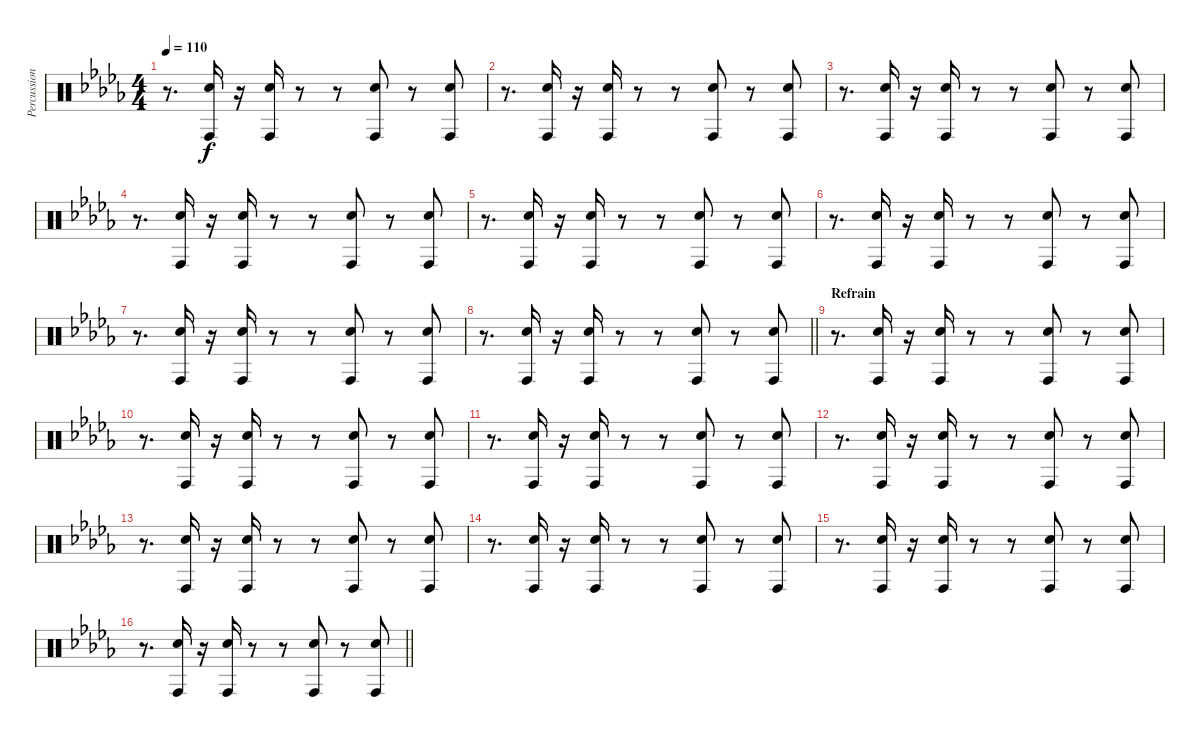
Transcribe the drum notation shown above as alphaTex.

\track ("Percussions" "Percussion") {instrument percussion}
\staff {score}
\articulation defaults
\ts (4 4)
\tempo 110
\clef neutral
\ks bbminor
r.8{d dy f} ("Conga high (hit)" "Hand Clap (hit)").16 r.16 ("Conga high (hit)" "Hand Clap (hit)").16 r.8 r.8 ("Conga high (hit)" "Hand Clap (hit)").8 r.8 ("Conga high (hit)" "Hand Clap (hit)").8 |
r.8{d} ("Conga high (hit)" "Hand Clap (hit)").16 r.16 ("Conga high (hit)" "Hand Clap (hit)").16 r.8 r.8 ("Conga high (hit)" "Hand Clap (hit)").8 r.8 ("Conga high (hit)" "Hand Clap (hit)").8 |
r.8{d} ("Conga high (hit)" "Hand Clap (hit)").16 r.16 ("Conga high (hit)" "Hand Clap (hit)").16 r.8 r.8 ("Conga high (hit)" "Hand Clap (hit)").8 r.8 ("Conga high (hit)" "Hand Clap (hit)").8 |
r.8{d} ("Conga high (hit)" "Hand Clap (hit)").16 r.16 ("Conga high (hit)" "Hand Clap (hit)").16 r.8 r.8 ("Conga high (hit)" "Hand Clap (hit)").8 r.8 ("Conga high (hit)" "Hand Clap (hit)").8 |
r.8{d} ("Conga high (hit)" "Hand Clap (hit)").16 r.16 ("Conga high (hit)" "Hand Clap (hit)").16 r.8 r.8 ("Conga high (hit)" "Hand Clap (hit)").8 r.8 ("Conga high (hit)" "Hand Clap (hit)").8 |
r.8{d} ("Conga high (hit)" "Hand Clap (hit)").16 r.16 ("Conga high (hit)" "Hand Clap (hit)").16 r.8 r.8 ("Conga high (hit)" "Hand Clap (hit)").8 r.8 ("Conga high (hit)" "Hand Clap (hit)").8 |
r.8{d} ("Conga high (hit)" "Hand Clap (hit)").16 r.16 ("Conga high (hit)" "Hand Clap (hit)").16 r.8 r.8 ("Conga high (hit)" "Hand Clap (hit)").8 r.8 ("Conga high (hit)" "Hand Clap (hit)").8 |
\barLineRight lightlight
r.8{d} ("Conga high (hit)" "Hand Clap (hit)").16 r.16 ("Conga high (hit)" "Hand Clap (hit)").16 r.8 r.8 ("Conga high (hit)" "Hand Clap (hit)").8 r.8 ("Conga high (hit)" "Hand Clap (hit)").8 |
\section ("" "Refrain")
r.8{d} ("Conga high (hit)" "Hand Clap (hit)").16 r.16 ("Conga high (hit)" "Hand Clap (hit)").16 r.8 r.8 ("Conga high (hit)" "Hand Clap (hit)").8 r.8 ("Conga high (hit)" "Hand Clap (hit)").8 |
r.8{d} ("Conga high (hit)" "Hand Clap (hit)").16 r.16 ("Conga high (hit)" "Hand Clap (hit)").16 r.8 r.8 ("Conga high (hit)" "Hand Clap (hit)").8 r.8 ("Conga high (hit)" "Hand Clap (hit)").8 |
r.8{d} ("Conga high (hit)" "Hand Clap (hit)").16 r.16 ("Conga high (hit)" "Hand Clap (hit)").16 r.8 r.8 ("Conga high (hit)" "Hand Clap (hit)").8 r.8 ("Conga high (hit)" "Hand Clap (hit)").8 |
r.8{d} ("Conga high (hit)" "Hand Clap (hit)").16 r.16 ("Conga high (hit)" "Hand Clap (hit)").16 r.8 r.8 ("Conga high (hit)" "Hand Clap (hit)").8 r.8 ("Conga high (hit)" "Hand Clap (hit)").8 |
r.8{d} ("Conga high (hit)" "Hand Clap (hit)").16 r.16 ("Conga high (hit)" "Hand Clap (hit)").16 r.8 r.8 ("Conga high (hit)" "Hand Clap (hit)").8 r.8 ("Conga high (hit)" "Hand Clap (hit)").8 |
r.8{d} ("Conga high (hit)" "Hand Clap (hit)").16 r.16 ("Conga high (hit)" "Hand Clap (hit)").16 r.8 r.8 ("Conga high (hit)" "Hand Clap (hit)").8 r.8 ("Conga high (hit)" "Hand Clap (hit)").8 |
r.8{d} ("Conga high (hit)" "Hand Clap (hit)").16 r.16 ("Conga high (hit)" "Hand Clap (hit)").16 r.8 r.8 ("Conga high (hit)" "Hand Clap (hit)").8 r.8 ("Conga high (hit)" "Hand Clap (hit)").8 |
\barLineRight lightlight
r.8{d} ("Conga high (hit)" "Hand Clap (hit)").16 r.16 ("Conga high (hit)" "Hand Clap (hit)").16 r.8 r.8 ("Conga high (hit)" "Hand Clap (hit)").8 r.8 ("Conga high (hit)" "Hand Clap (hit)").8
